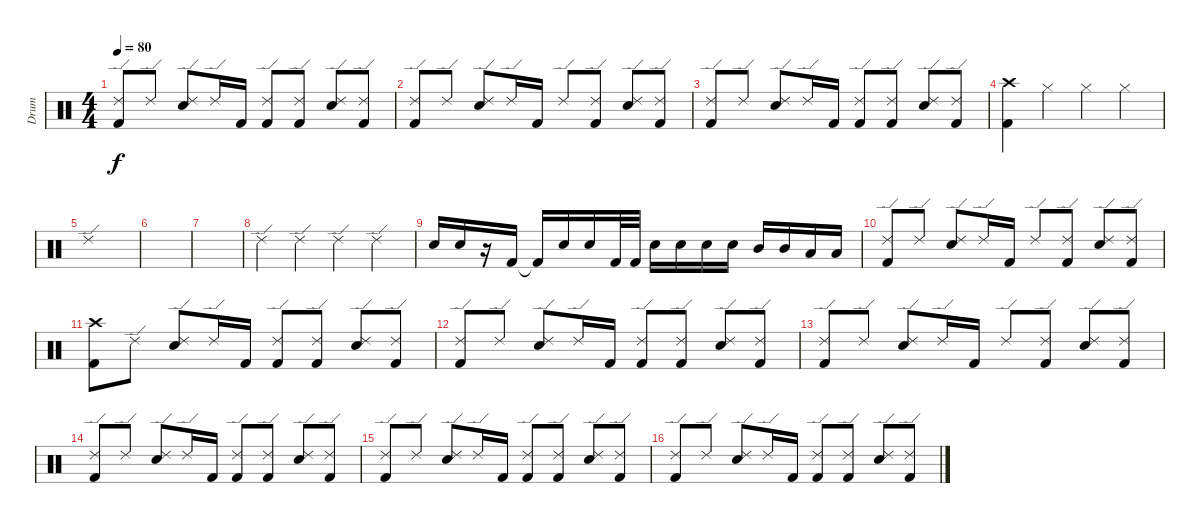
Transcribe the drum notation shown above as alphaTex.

\track ("Drum" "Drum") {instrument percussion}
\staff {score}
\articulation defaults
\ts (4 4)
\tempo 80
\clef neutral
\ks c
("Ride (edge) 2" "Kick (hit) 2").8{dy f} "Ride (edge) 2".8 ("Ride (edge) 2" "Electric Snare (hit)").8 "Ride (edge) 2".16 "Kick (hit) 2".16 ("Ride (edge) 2" "Kick (hit) 2").8 ("Ride (edge) 2" "Kick (hit) 2").8 ("Ride (edge) 2" "Electric Snare (hit)").8 ("Ride (edge) 2" "Kick (hit) 2").8 |
("Ride (edge) 2" "Kick (hit) 2").8 "Ride (edge) 2".8 ("Ride (edge) 2" "Electric Snare (hit)").8 "Ride (edge) 2".16 "Kick (hit) 2".16 "Ride (edge) 2".8 ("Ride (edge) 2" "Kick (hit) 2").8 ("Ride (edge) 2" "Electric Snare (hit)").8 ("Ride (edge) 2" "Kick (hit) 2").8 |
("Ride (edge) 2" "Kick (hit) 2").8 "Ride (edge) 2".8 ("Ride (edge) 2" "Electric Snare (hit)").8 "Ride (edge) 2".16 "Kick (hit) 2".16 ("Ride (edge) 2" "Kick (hit) 2").8 ("Ride (edge) 2" "Kick (hit) 2").8 ("Ride (edge) 2" "Electric Snare (hit)").8 ("Ride (edge) 2" "Kick (hit) 2").8 |
("Crash high (hit)" "Kick (hit) 2").4 "Hi-Hat (closed)".4 "Hi-Hat (closed)".4 "Hi-Hat (closed)".4 |
"Ride (edge) 2".1 |
|
|
"Ride (edge) 2".4 "Ride (edge) 2".4 "Ride (edge) 2".4 "Ride (edge) 2".4 |
"Electric Snare (hit)".16 "Electric Snare (hit)".16 r.16 "Kick (hit) 2".16 "Kick (hit) 2"{t}.16 "Electric Snare (hit)".16 "Electric Snare (hit)".16 "Kick (hit) 2".32 "Kick (hit) 2".32 "Electric Snare (hit)".16 "Electric Snare (hit)".16 "Electric Snare (hit)".16 "Electric Snare (hit)".16 "Mid Tom (hit)".16 "Mid Tom (hit)".16 "Low Tom (hit)".16 "Low Tom (hit)".16 |
("Ride (edge) 2" "Kick (hit) 2").8 "Ride (edge) 2".8 ("Ride (edge) 2" "Electric Snare (hit)").8 "Ride (edge) 2".16 "Kick (hit) 2".16 "Ride (edge) 2".8 ("Ride (edge) 2" "Kick (hit) 2").8 ("Ride (edge) 2" "Electric Snare (hit)").8 ("Ride (edge) 2" "Kick (hit) 2").8 |
("Crash high (hit)" "Kick (hit) 2").8 "Ride (edge) 2".8 ("Ride (edge) 2" "Electric Snare (hit)").8 "Ride (edge) 2".16 "Kick (hit) 2".16 ("Ride (edge) 2" "Kick (hit) 2").8 ("Ride (edge) 2" "Kick (hit) 2").8 ("Ride (edge) 2" "Electric Snare (hit)").8 ("Ride (edge) 2" "Kick (hit) 2").8 |
("Ride (edge) 2" "Kick (hit) 2").8 "Ride (edge) 2".8 ("Ride (edge) 2" "Electric Snare (hit)").8 "Ride (edge) 2".16 "Kick (hit) 2".16 ("Ride (edge) 2" "Kick (hit) 2").8 ("Ride (edge) 2" "Kick (hit) 2").8 ("Ride (edge) 2" "Electric Snare (hit)").8 ("Ride (edge) 2" "Kick (hit) 2").8 |
("Ride (edge) 2" "Kick (hit) 2").8 "Ride (edge) 2".8 ("Ride (edge) 2" "Electric Snare (hit)").8 "Ride (edge) 2".16 "Kick (hit) 2".16 "Ride (edge) 2".8 ("Ride (edge) 2" "Kick (hit) 2").8 ("Ride (edge) 2" "Electric Snare (hit)").8 ("Ride (edge) 2" "Kick (hit) 2").8 |
("Ride (edge) 2" "Kick (hit) 2").8 "Ride (edge) 2".8 ("Ride (edge) 2" "Electric Snare (hit)").8 "Ride (edge) 2".16 "Kick (hit) 2".16 ("Ride (edge) 2" "Kick (hit) 2").8 ("Ride (edge) 2" "Kick (hit) 2").8 ("Ride (edge) 2" "Electric Snare (hit)").8 ("Ride (edge) 2" "Kick (hit) 2").8 |
("Ride (edge) 2" "Kick (hit) 2").8 "Ride (edge) 2".8 ("Ride (edge) 2" "Electric Snare (hit)").8 "Ride (edge) 2".16 "Kick (hit) 2".16 ("Ride (edge) 2" "Kick (hit) 2").8 ("Ride (edge) 2" "Kick (hit) 2").8 ("Ride (edge) 2" "Electric Snare (hit)").8 ("Ride (edge) 2" "Kick (hit) 2").8 |
("Ride (edge) 2" "Kick (hit) 2").8 "Ride (edge) 2".8 ("Ride (edge) 2" "Electric Snare (hit)").8 "Ride (edge) 2".16 "Kick (hit) 2".16 ("Ride (edge) 2" "Kick (hit) 2").8 ("Ride (edge) 2" "Kick (hit) 2").8 ("Ride (edge) 2" "Electric Snare (hit)").8 ("Ride (edge) 2" "Kick (hit) 2").8
